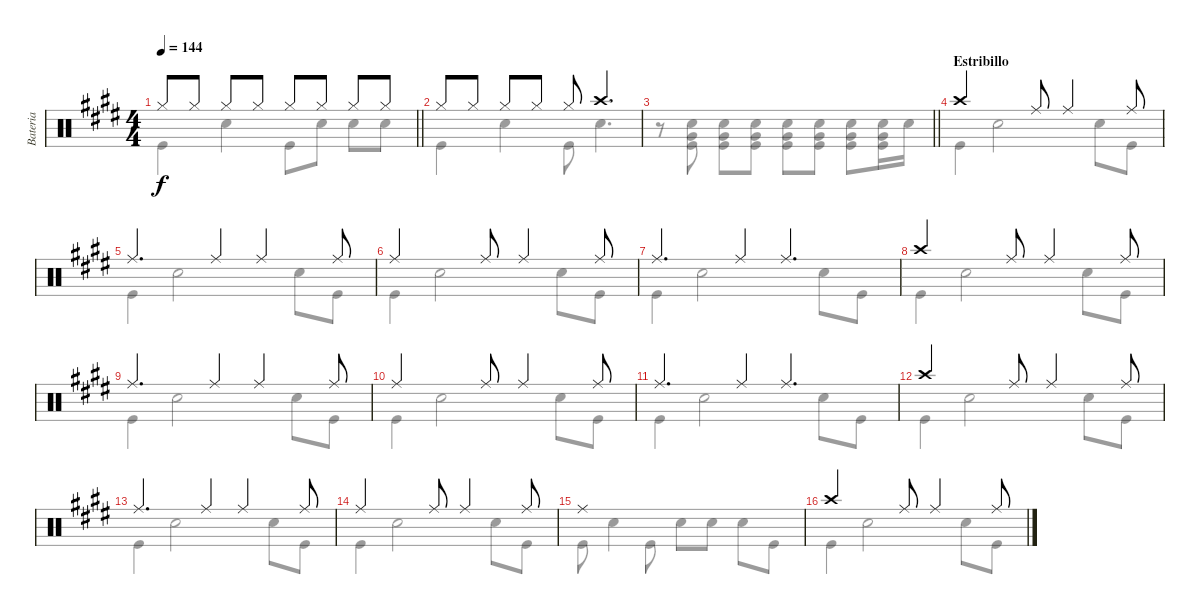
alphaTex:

\track ("Bateria" "Bateria") {instrument percussion}
\staff {score}
\articulation defaults
\voice
\ts (4 4)
\tempo 144
\clef neutral
\barLineRight lightlight
\ks e "Hi-Hat (closed)".8{dy f} "Hi-Hat (closed)".8 "Hi-Hat (closed)".8 "Hi-Hat (closed)".8 "Hi-Hat (closed)".8 "Hi-Hat (closed)".8 "Hi-Hat (closed)".8 "Hi-Hat (closed)".8
|
"Hi-Hat (closed)".8 "Hi-Hat (closed)".8 "Hi-Hat (closed)".8 "Hi-Hat (closed)".8 "Hi-Hat (closed)".8 "Crash high (hit)".4{d} |
\barLineRight lightlight
|
\section ("" "Estribillo")
"Crash high (hit)".2 "Ride (middle)".8 "Ride (middle)".4 "Ride (middle)".8 |
"Ride (middle)".4{d} "Ride (middle)".4 "Ride (middle)".4 "Ride (middle)".8 |
"Ride (middle)".2 "Ride (middle)".8 "Ride (middle)".4 "Ride (middle)".8 |
"Ride (middle)".4{d} "Ride (middle)".4 "Ride (middle)".4{d} |
"Crash high (hit)".2 "Ride (middle)".8 "Ride (middle)".4 "Ride (middle)".8 |
"Ride (middle)".4{d} "Ride (middle)".4 "Ride (middle)".4 "Ride (middle)".8 |
"Ride (middle)".2 "Ride (middle)".8 "Ride (middle)".4 "Ride (middle)".8 |
"Ride (middle)".4{d} "Ride (middle)".4 "Ride (middle)".4{d} |
"Crash high (hit)".2 "Ride (middle)".8 "Ride (middle)".4 "Ride (middle)".8 |
"Ride (middle)".4{d} "Ride (middle)".4 "Ride (middle)".4 "Ride (middle)".8 |
"Ride (middle)".2 "Ride (middle)".8 "Ride (middle)".4 "Ride (middle)".8 |
"Ride (middle)".1 |
"Crash high (hit)".2 "Ride (middle)".8 "Ride (middle)".4 "Ride (middle)".8
\voice
\clef neutral
\ottava regular
\simile none
\barLineRight lightlight
\ks e "Kick (hit)".4{dy f} "Snare (hit) 2".4 "Kick (hit)".8 "Snare (hit) 2".8 "Snare (hit) 2".8 "Snare (hit) 2".8
|
"Kick (hit)".4 "Snare (hit) 2".4 "Kick (hit)".8 "Snare (hit) 2".4{d} |
\barLineRight lightlight
r.8 ("Very Low Tom (hit)" "Kick (hit)" "Snare (hit) 2").8 ("Very Low Tom (hit)" "Kick (hit)" "Snare (hit) 2").8 ("Very Low Tom (hit)" "Kick (hit)" "Snare (hit) 2").8 ("Very Low Tom (hit)" "Kick (hit)" "Snare (hit) 2").8 ("Very Low Tom (hit)" "Kick (hit)" "Snare (hit) 2").8 ("Very Low Tom (hit)" "Kick (hit)" "Snare (hit) 2").8 ("Very Low Tom (hit)" "Kick (hit)" "Snare (hit) 2").16 "Snare (hit) 2".16 |
"Kick (hit)".4 "Snare (hit) 2".2 "Snare (hit) 2".8 "Kick (hit)".8 |
"Kick (hit)".4 "Snare (hit) 2".2 "Snare (hit) 2".8 "Kick (hit)".8 |
"Kick (hit)".4 "Snare (hit) 2".2 "Snare (hit) 2".8 "Kick (hit)".8 |
"Kick (hit)".4 "Snare (hit) 2".2 "Snare (hit) 2".8 "Kick (hit)".8 |
"Kick (hit)".4 "Snare (hit) 2".2 "Snare (hit) 2".8 "Kick (hit)".8 |
"Kick (hit)".4 "Snare (hit) 2".2 "Snare (hit) 2".8 "Kick (hit)".8 |
"Kick (hit)".4 "Snare (hit) 2".2 "Snare (hit) 2".8 "Kick (hit)".8 |
"Kick (hit)".4 "Snare (hit) 2".2 "Snare (hit) 2".8 "Kick (hit)".8 |
"Kick (hit)".4 "Snare (hit) 2".2 "Snare (hit) 2".8 "Kick (hit)".8 |
"Kick (hit)".4 "Snare (hit) 2".2 "Snare (hit) 2".8 "Kick (hit)".8 |
"Kick (hit)".4 "Snare (hit) 2".2 "Snare (hit) 2".8 "Kick (hit)".8 |
"Kick (hit)".8 "Snare (hit) 2".4 "Kick (hit)".8 "Snare (hit) 2".8 "Snare (hit) 2".8 "Snare (hit) 2".8 "Kick (hit)".8 |
"Kick (hit)".4 "Snare (hit) 2".2 "Snare (hit) 2".8 "Kick (hit)".8
